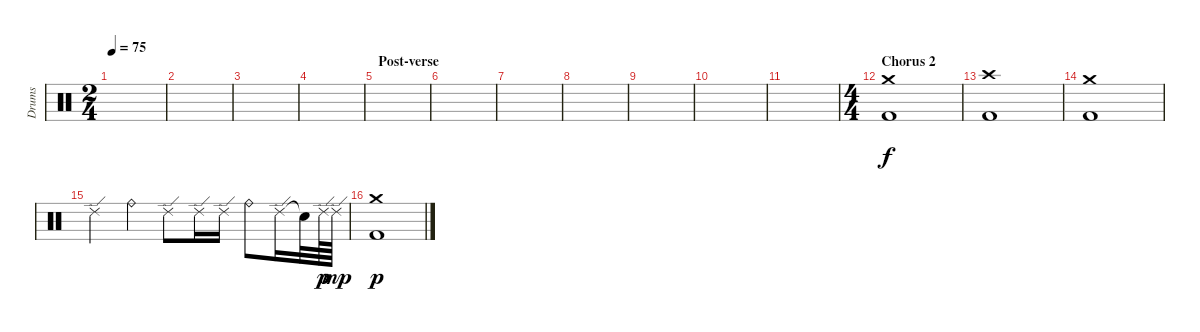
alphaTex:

\track ("Drums" "Drums") {instrument percussion}
\staff {score}
\articulation defaults
\ts (2 4)
\tempo 75
\clef neutral
\ks c
|
|
|
|
\section ("" "Post-verse")
|
|
|
|
|
|
|
\ts (4 4)
\section ("" "Chorus 2")
("Kick (hit) 2" "Crash medium (hit)").1 |
("Kick (hit) 2" "Crash high (hit)").1 |
("Kick (hit) 2" "Crash medium (hit)").1 |
"Ride (edge) 2".4{dy f} "Ride (bell)".4 "Ride (edge) 2".8 "Ride (edge) 2".16 "Ride (edge) 2".16 "Ride (bell)".8 "Ride (edge) 2".16 "Snare (hit)"{t}.32 "Ride (edge) 2".64{dy p} "Ride (edge) 2".64{dy mp} |
("Kick (hit) 2" "Crash medium (hit)").1{dy p}
